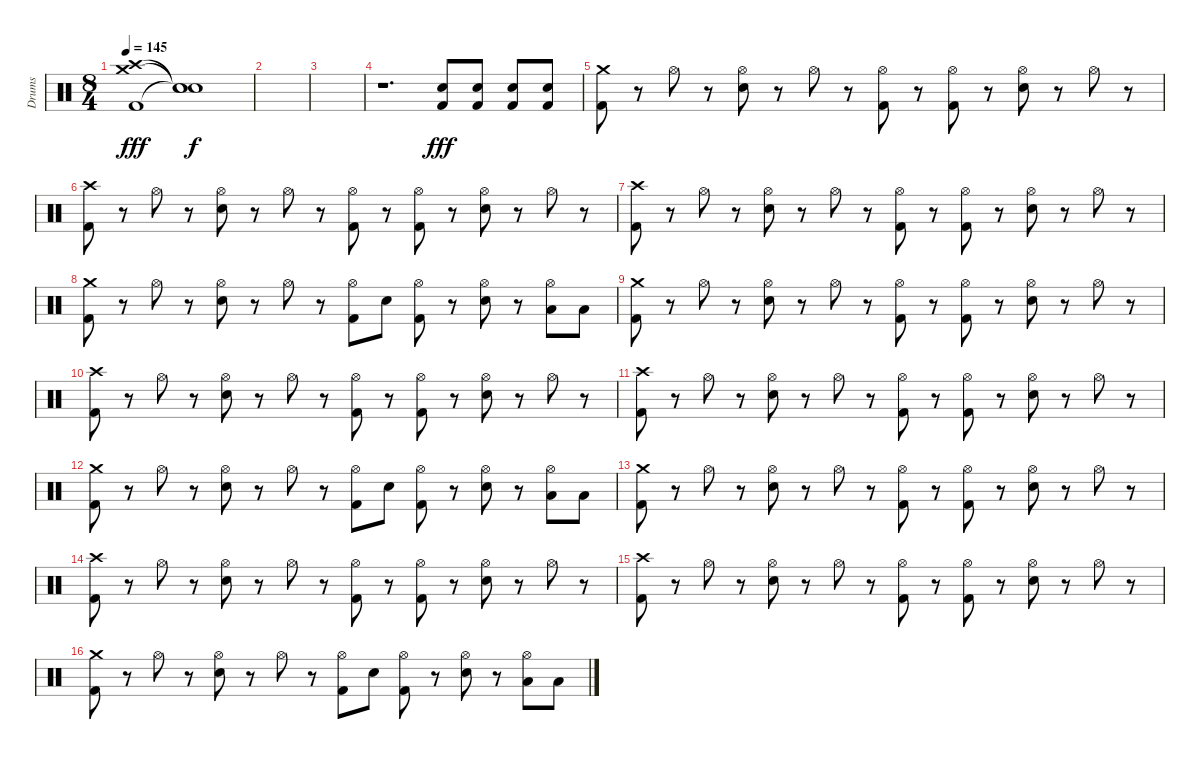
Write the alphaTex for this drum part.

\track ("Drums" "Drums") {instrument percussion}
\staff {score}
\articulation defaults
\ts (8 4)
\tempo 145
\clef neutral
\ks c
("Crash high (hit)" "Crash medium (hit)" "Kick (hit) 2").1{dy fff} ("Snare (hit)"{t} "Snare (hit)"{t} "Snare (hit)"{t}).1{dy f} |
|
|
r.1{d} ("Snare (hit) 2" "Kick (hit) 2").8{dy fff} ("Snare (hit) 2" "Kick (hit) 2").8 ("Snare (hit) 2" "Kick (hit) 2").8 ("Snare (hit) 2" "Kick (hit) 2").8 |
("Crash medium (hit)" "Kick (hit) 2").8 r.8 "Hi-Hat (open)".8 r.8 ("Hi-Hat (open)" "Snare (hit) 2").8 r.8 "Hi-Hat (open)".8 r.8 ("Hi-Hat (open)" "Kick (hit) 2").8 r.8 ("Hi-Hat (open)" "Kick (hit) 2").8 r.8 ("Hi-Hat (open)" "Snare (hit) 2").8 r.8 "Hi-Hat (open)".8 r.8 |
("Crash high (hit)" "Kick (hit) 2").8 r.8 "Hi-Hat (open)".8 r.8 ("Hi-Hat (open)" "Snare (hit) 2").8 r.8 "Hi-Hat (open)".8 r.8 ("Hi-Hat (open)" "Kick (hit) 2").8 r.8 ("Hi-Hat (open)" "Kick (hit) 2").8 r.8 ("Hi-Hat (open)" "Snare (hit) 2").8 r.8 "Hi-Hat (open)".8 r.8 |
("Crash high (hit)" "Kick (hit) 2").8 r.8 "Hi-Hat (open)".8 r.8 ("Hi-Hat (open)" "Snare (hit) 2").8 r.8 "Hi-Hat (open)".8 r.8 ("Hi-Hat (open)" "Kick (hit) 2").8 r.8 ("Hi-Hat (open)" "Kick (hit) 2").8 r.8 ("Hi-Hat (open)" "Snare (hit) 2").8 r.8 "Hi-Hat (open)".8 r.8 |
("Crash medium (hit)" "Kick (hit) 2").8 r.8 "Hi-Hat (open)".8 r.8 ("Hi-Hat (open)" "Snare (hit) 2").8 r.8 "Hi-Hat (open)".8 r.8 ("Hi-Hat (open)" "Kick (hit) 2").8 "Snare (hit) 2".8 ("Hi-Hat (open)" "Kick (hit) 2").8 r.8 ("Hi-Hat (open)" "Snare (hit) 2").8 r.8 ("Hi-Hat (open)" "Low Tom (hit)").8 "Low Tom (hit)".8 |
("Crash medium (hit)" "Kick (hit) 2").8 r.8 "Hi-Hat (open)".8 r.8 ("Hi-Hat (open)" "Snare (hit) 2").8 r.8 "Hi-Hat (open)".8 r.8 ("Hi-Hat (open)" "Kick (hit) 2").8 r.8 ("Hi-Hat (open)" "Kick (hit) 2").8 r.8 ("Hi-Hat (open)" "Snare (hit) 2").8 r.8 "Hi-Hat (open)".8 r.8 |
("Crash high (hit)" "Kick (hit) 2").8 r.8 "Hi-Hat (open)".8 r.8 ("Hi-Hat (open)" "Snare (hit) 2").8 r.8 "Hi-Hat (open)".8 r.8 ("Hi-Hat (open)" "Kick (hit) 2").8 r.8 ("Hi-Hat (open)" "Kick (hit) 2").8 r.8 ("Hi-Hat (open)" "Snare (hit) 2").8 r.8 "Hi-Hat (open)".8 r.8 |
("Crash high (hit)" "Kick (hit) 2").8 r.8 "Hi-Hat (open)".8 r.8 ("Hi-Hat (open)" "Snare (hit) 2").8 r.8 "Hi-Hat (open)".8 r.8 ("Hi-Hat (open)" "Kick (hit) 2").8 r.8 ("Hi-Hat (open)" "Kick (hit) 2").8 r.8 ("Hi-Hat (open)" "Snare (hit) 2").8 r.8 "Hi-Hat (open)".8 r.8 |
("Crash medium (hit)" "Kick (hit) 2").8 r.8 "Hi-Hat (open)".8 r.8 ("Hi-Hat (open)" "Snare (hit) 2").8 r.8 "Hi-Hat (open)".8 r.8 ("Hi-Hat (open)" "Kick (hit) 2").8 "Snare (hit) 2".8 ("Hi-Hat (open)" "Kick (hit) 2").8 r.8 ("Hi-Hat (open)" "Snare (hit) 2").8 r.8 ("Hi-Hat (open)" "Low Tom (hit)").8 "Low Tom (hit)".8 |
("Crash medium (hit)" "Kick (hit) 2").8 r.8 "Hi-Hat (open)".8 r.8 ("Hi-Hat (open)" "Snare (hit) 2").8 r.8 "Hi-Hat (open)".8 r.8 ("Hi-Hat (open)" "Kick (hit) 2").8 r.8 ("Hi-Hat (open)" "Kick (hit) 2").8 r.8 ("Hi-Hat (open)" "Snare (hit) 2").8 r.8 "Hi-Hat (open)".8 r.8 |
("Crash high (hit)" "Kick (hit) 2").8 r.8 "Hi-Hat (open)".8 r.8 ("Hi-Hat (open)" "Snare (hit) 2").8 r.8 "Hi-Hat (open)".8 r.8 ("Hi-Hat (open)" "Kick (hit) 2").8 r.8 ("Hi-Hat (open)" "Kick (hit) 2").8 r.8 ("Hi-Hat (open)" "Snare (hit) 2").8 r.8 "Hi-Hat (open)".8 r.8 |
("Crash high (hit)" "Kick (hit) 2").8 r.8 "Hi-Hat (open)".8 r.8 ("Hi-Hat (open)" "Snare (hit) 2").8 r.8 "Hi-Hat (open)".8 r.8 ("Hi-Hat (open)" "Kick (hit) 2").8 r.8 ("Hi-Hat (open)" "Kick (hit) 2").8 r.8 ("Hi-Hat (open)" "Snare (hit) 2").8 r.8 "Hi-Hat (open)".8 r.8 |
("Crash medium (hit)" "Kick (hit) 2").8 r.8 "Hi-Hat (open)".8 r.8 ("Hi-Hat (open)" "Snare (hit) 2").8 r.8 "Hi-Hat (open)".8 r.8 ("Hi-Hat (open)" "Kick (hit) 2").8 "Snare (hit) 2".8 ("Hi-Hat (open)" "Kick (hit) 2").8 r.8 ("Hi-Hat (open)" "Snare (hit) 2").8 r.8 ("Hi-Hat (open)" "Low Tom (hit)").8 "Low Tom (hit)".8
